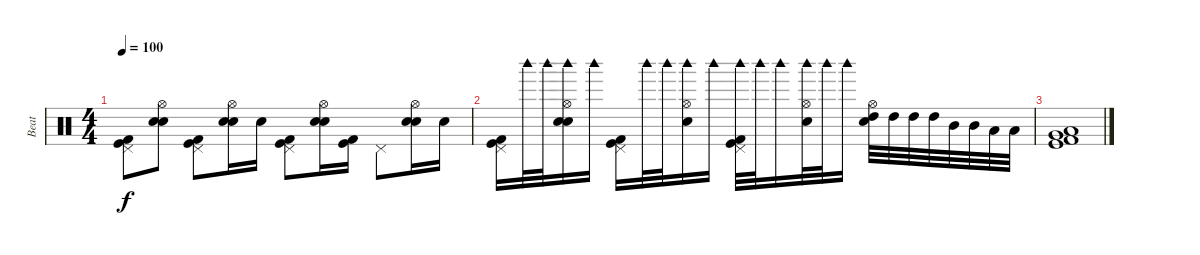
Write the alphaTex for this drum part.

\track ("Beat" "Beat") {instrument percussion}
\staff {score}
\articulation defaults
\ts (4 4)
\tempo 100
\clef neutral
\ks c
("Pedal Hi-Hat (hit)" "Kick (hit)" "Kick (hit) 2").8{dy f} ("Hi-Hat (open)" "Hand Clap (hit)" "Snare (hit) 2").8 ("Pedal Hi-Hat (hit)" "Kick (hit)" "Kick (hit) 2").8 ("Hi-Hat (open)" "Hand Clap (hit)" "Snare (hit) 2").16 "Hand Clap (hit)".16 ("Pedal Hi-Hat (hit)" "Kick (hit)" "Kick (hit) 2").8 ("Hi-Hat (open)" "Hand Clap (hit)" "Snare (hit) 2").16 ("Kick (hit)" "Kick (hit) 2").16 "Pedal Hi-Hat (hit)".8 ("Hi-Hat (open)" "Hand Clap (hit)" "Snare (hit) 2").16 "Hand Clap (hit)".16 |
("Pedal Hi-Hat (hit)" "Kick (hit)" "Kick (hit) 2").16 "Woodblock high (hit)".32 "Woodblock high (hit)".32 ("Hi-Hat (open)" "Woodblock high (hit)" "Snare (hit) 2" "Hand Clap (hit)").16 "Woodblock high (hit)".16 ("Pedal Hi-Hat (hit)" "Kick (hit)" "Kick (hit) 2").16 "Woodblock high (hit)".32 "Woodblock high (hit)".32 ("Hi-Hat (open)" "Woodblock high (hit)" "Snare (hit) 2").16 "Woodblock high (hit)".16 ("Pedal Hi-Hat (hit)" "Woodblock high (hit)" "Kick (hit)" "Kick (hit) 2").32 "Woodblock high (hit)".32 "Woodblock high (hit)".16 ("Hi-Hat (open)" "Woodblock high (hit)" "Snare (hit) 2").32 "Woodblock high (hit)".32 "Woodblock high (hit)".16 ("Hi-Hat (open)" "High Tom (hit)" "Snare (hit) 2").32 "High Tom (hit)".32 "High Tom (hit)".32 "High Tom (hit)".32 "Mid Tom (hit)".32 "Mid Tom (hit)".32 "Low Tom (hit)".32 "Low Tom (hit)".32 |
("Low Tom (hit)" "Very Low Tom (hit)" "Kick (hit)" "Kick (hit) 2").1
